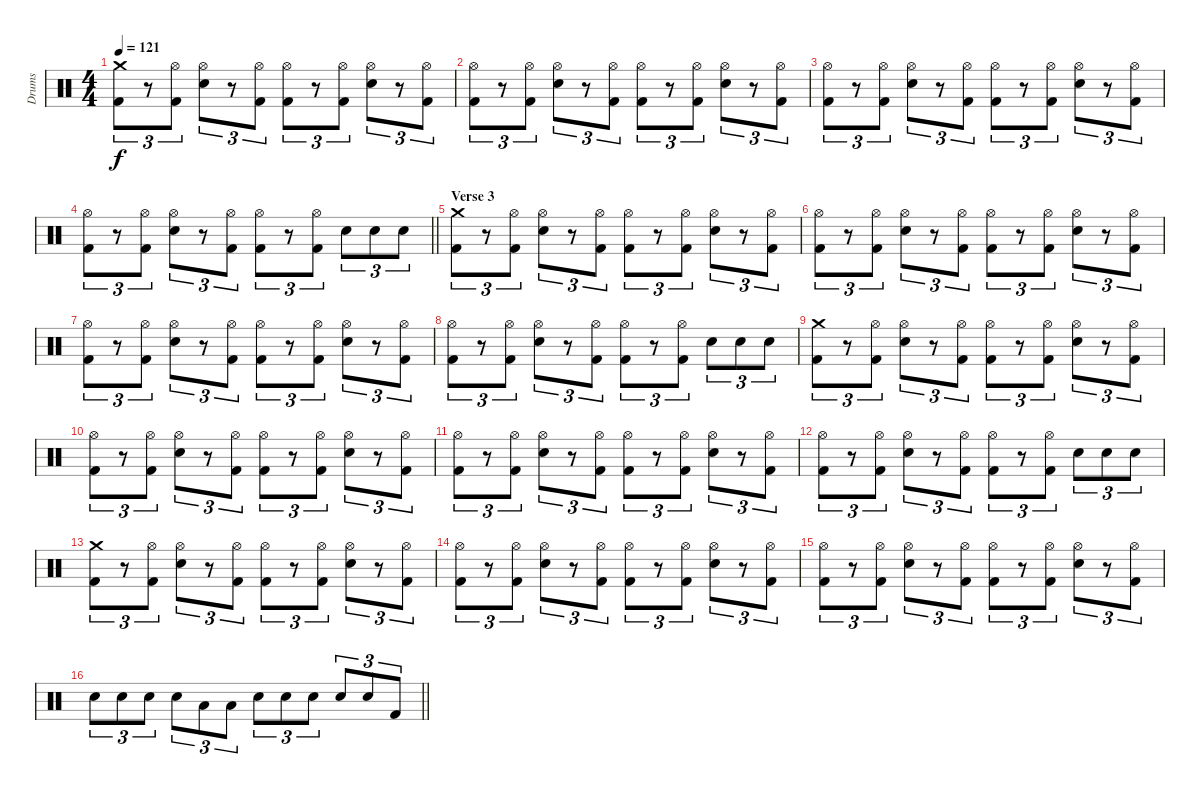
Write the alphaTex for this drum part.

\track ("Drums" "Drums") {instrument percussion}
\staff {score}
\articulation defaults
\ts (4 4)
\tempo 121
\clef neutral
\ks c
("Crash medium (hit)" "Kick (hit) 2").8{tu (3 2) dy f} r.8{tu (3 2)} ("Hi-Hat (open)" "Kick (hit) 2").8{tu (3 2)} ("Hi-Hat (open)" "Snare (hit) 2").8{tu (3 2)} r.8{tu (3 2)} ("Hi-Hat (open)" "Kick (hit) 2").8{tu (3 2)} ("Hi-Hat (open)" "Kick (hit) 2").8{tu (3 2)} r.8{tu (3 2)} ("Hi-Hat (open)" "Kick (hit) 2").8{tu (3 2)} ("Hi-Hat (open)" "Snare (hit) 2").8{tu (3 2)} r.8{tu (3 2)} ("Hi-Hat (open)" "Kick (hit) 2").8{tu (3 2)} |
("Hi-Hat (open)" "Kick (hit) 2").8{tu (3 2)} r.8{tu (3 2)} ("Hi-Hat (open)" "Kick (hit) 2").8{tu (3 2)} ("Hi-Hat (open)" "Snare (hit) 2").8{tu (3 2)} r.8{tu (3 2)} ("Hi-Hat (open)" "Kick (hit) 2").8{tu (3 2)} ("Hi-Hat (open)" "Kick (hit) 2").8{tu (3 2)} r.8{tu (3 2)} ("Hi-Hat (open)" "Kick (hit) 2").8{tu (3 2)} ("Hi-Hat (open)" "Snare (hit) 2").8{tu (3 2)} r.8{tu (3 2)} ("Hi-Hat (open)" "Kick (hit) 2").8{tu (3 2)} |
("Hi-Hat (open)" "Kick (hit) 2").8{tu (3 2)} r.8{tu (3 2)} ("Hi-Hat (open)" "Kick (hit) 2").8{tu (3 2)} ("Hi-Hat (open)" "Snare (hit) 2").8{tu (3 2)} r.8{tu (3 2)} ("Hi-Hat (open)" "Kick (hit) 2").8{tu (3 2)} ("Hi-Hat (open)" "Kick (hit) 2").8{tu (3 2)} r.8{tu (3 2)} ("Hi-Hat (open)" "Kick (hit) 2").8{tu (3 2)} ("Hi-Hat (open)" "Snare (hit) 2").8{tu (3 2)} r.8{tu (3 2)} ("Hi-Hat (open)" "Kick (hit) 2").8{tu (3 2)} |
\barLineRight lightlight
("Hi-Hat (open)" "Kick (hit) 2").8{tu (3 2)} r.8{tu (3 2)} ("Hi-Hat (open)" "Kick (hit) 2").8{tu (3 2)} ("Hi-Hat (open)" "Snare (hit) 2").8{tu (3 2)} r.8{tu (3 2)} ("Hi-Hat (open)" "Kick (hit) 2").8{tu (3 2)} ("Hi-Hat (open)" "Kick (hit) 2").8{tu (3 2)} r.8{tu (3 2)} ("Hi-Hat (open)" "Kick (hit) 2").8{tu (3 2)} "Snare (hit) 2".8{tu (3 2)} "Snare (hit) 2".8{tu (3 2)} "Snare (hit) 2".8{tu (3 2)} |
\section ("" "Verse 3")
("Crash medium (hit)" "Kick (hit) 2").8{tu (3 2)} r.8{tu (3 2)} ("Hi-Hat (open)" "Kick (hit) 2").8{tu (3 2)} ("Hi-Hat (open)" "Snare (hit) 2").8{tu (3 2)} r.8{tu (3 2)} ("Hi-Hat (open)" "Kick (hit) 2").8{tu (3 2)} ("Hi-Hat (open)" "Kick (hit) 2").8{tu (3 2)} r.8{tu (3 2)} ("Hi-Hat (open)" "Kick (hit) 2").8{tu (3 2)} ("Hi-Hat (open)" "Snare (hit) 2").8{tu (3 2)} r.8{tu (3 2)} ("Hi-Hat (open)" "Kick (hit) 2").8{tu (3 2)} |
("Hi-Hat (open)" "Kick (hit) 2").8{tu (3 2)} r.8{tu (3 2)} ("Hi-Hat (open)" "Kick (hit) 2").8{tu (3 2)} ("Hi-Hat (open)" "Snare (hit) 2").8{tu (3 2)} r.8{tu (3 2)} ("Hi-Hat (open)" "Kick (hit) 2").8{tu (3 2)} ("Hi-Hat (open)" "Kick (hit) 2").8{tu (3 2)} r.8{tu (3 2)} ("Hi-Hat (open)" "Kick (hit) 2").8{tu (3 2)} ("Hi-Hat (open)" "Snare (hit) 2").8{tu (3 2)} r.8{tu (3 2)} ("Hi-Hat (open)" "Kick (hit) 2").8{tu (3 2)} |
("Hi-Hat (open)" "Kick (hit) 2").8{tu (3 2)} r.8{tu (3 2)} ("Hi-Hat (open)" "Kick (hit) 2").8{tu (3 2)} ("Hi-Hat (open)" "Snare (hit) 2").8{tu (3 2)} r.8{tu (3 2)} ("Hi-Hat (open)" "Kick (hit) 2").8{tu (3 2)} ("Hi-Hat (open)" "Kick (hit) 2").8{tu (3 2)} r.8{tu (3 2)} ("Hi-Hat (open)" "Kick (hit) 2").8{tu (3 2)} ("Hi-Hat (open)" "Snare (hit) 2").8{tu (3 2)} r.8{tu (3 2)} ("Hi-Hat (open)" "Kick (hit) 2").8{tu (3 2)} |
("Hi-Hat (open)" "Kick (hit) 2").8{tu (3 2)} r.8{tu (3 2)} ("Hi-Hat (open)" "Kick (hit) 2").8{tu (3 2)} ("Hi-Hat (open)" "Snare (hit) 2").8{tu (3 2)} r.8{tu (3 2)} ("Hi-Hat (open)" "Kick (hit) 2").8{tu (3 2)} ("Hi-Hat (open)" "Kick (hit) 2").8{tu (3 2)} r.8{tu (3 2)} ("Hi-Hat (open)" "Kick (hit) 2").8{tu (3 2)} "Snare (hit) 2".8{tu (3 2)} "Snare (hit) 2".8{tu (3 2)} "Snare (hit) 2".8{tu (3 2)} |
("Crash medium (hit)" "Kick (hit) 2").8{tu (3 2)} r.8{tu (3 2)} ("Hi-Hat (open)" "Kick (hit) 2").8{tu (3 2)} ("Hi-Hat (open)" "Snare (hit) 2").8{tu (3 2)} r.8{tu (3 2)} ("Hi-Hat (open)" "Kick (hit) 2").8{tu (3 2)} ("Hi-Hat (open)" "Kick (hit) 2").8{tu (3 2)} r.8{tu (3 2)} ("Hi-Hat (open)" "Kick (hit) 2").8{tu (3 2)} ("Hi-Hat (open)" "Snare (hit) 2").8{tu (3 2)} r.8{tu (3 2)} ("Hi-Hat (open)" "Kick (hit) 2").8{tu (3 2)} |
("Hi-Hat (open)" "Kick (hit) 2").8{tu (3 2)} r.8{tu (3 2)} ("Hi-Hat (open)" "Kick (hit) 2").8{tu (3 2)} ("Hi-Hat (open)" "Snare (hit) 2").8{tu (3 2)} r.8{tu (3 2)} ("Hi-Hat (open)" "Kick (hit) 2").8{tu (3 2)} ("Hi-Hat (open)" "Kick (hit) 2").8{tu (3 2)} r.8{tu (3 2)} ("Hi-Hat (open)" "Kick (hit) 2").8{tu (3 2)} ("Hi-Hat (open)" "Snare (hit) 2").8{tu (3 2)} r.8{tu (3 2)} ("Hi-Hat (open)" "Kick (hit) 2").8{tu (3 2)} |
("Hi-Hat (open)" "Kick (hit) 2").8{tu (3 2)} r.8{tu (3 2)} ("Hi-Hat (open)" "Kick (hit) 2").8{tu (3 2)} ("Hi-Hat (open)" "Snare (hit) 2").8{tu (3 2)} r.8{tu (3 2)} ("Hi-Hat (open)" "Kick (hit) 2").8{tu (3 2)} ("Hi-Hat (open)" "Kick (hit) 2").8{tu (3 2)} r.8{tu (3 2)} ("Hi-Hat (open)" "Kick (hit) 2").8{tu (3 2)} ("Hi-Hat (open)" "Snare (hit) 2").8{tu (3 2)} r.8{tu (3 2)} ("Hi-Hat (open)" "Kick (hit) 2").8{tu (3 2)} |
("Hi-Hat (open)" "Kick (hit) 2").8{tu (3 2)} r.8{tu (3 2)} ("Hi-Hat (open)" "Kick (hit) 2").8{tu (3 2)} ("Hi-Hat (open)" "Snare (hit) 2").8{tu (3 2)} r.8{tu (3 2)} ("Hi-Hat (open)" "Kick (hit) 2").8{tu (3 2)} ("Hi-Hat (open)" "Kick (hit) 2").8{tu (3 2)} r.8{tu (3 2)} ("Hi-Hat (open)" "Kick (hit) 2").8{tu (3 2)} "Snare (hit) 2".8{tu (3 2)} "Snare (hit) 2".8{tu (3 2)} "Snare (hit) 2".8{tu (3 2)} |
("Crash medium (hit)" "Kick (hit) 2").8{tu (3 2)} r.8{tu (3 2)} ("Hi-Hat (open)" "Kick (hit) 2").8{tu (3 2)} ("Hi-Hat (open)" "Snare (hit) 2").8{tu (3 2)} r.8{tu (3 2)} ("Hi-Hat (open)" "Kick (hit) 2").8{tu (3 2)} ("Hi-Hat (open)" "Kick (hit) 2").8{tu (3 2)} r.8{tu (3 2)} ("Hi-Hat (open)" "Kick (hit) 2").8{tu (3 2)} ("Hi-Hat (open)" "Snare (hit) 2").8{tu (3 2)} r.8{tu (3 2)} ("Hi-Hat (open)" "Kick (hit) 2").8{tu (3 2)} |
("Hi-Hat (open)" "Kick (hit) 2").8{tu (3 2)} r.8{tu (3 2)} ("Hi-Hat (open)" "Kick (hit) 2").8{tu (3 2)} ("Hi-Hat (open)" "Snare (hit) 2").8{tu (3 2)} r.8{tu (3 2)} ("Hi-Hat (open)" "Kick (hit) 2").8{tu (3 2)} ("Hi-Hat (open)" "Kick (hit) 2").8{tu (3 2)} r.8{tu (3 2)} ("Hi-Hat (open)" "Kick (hit) 2").8{tu (3 2)} ("Hi-Hat (open)" "Snare (hit) 2").8{tu (3 2)} r.8{tu (3 2)} ("Hi-Hat (open)" "Kick (hit) 2").8{tu (3 2)} |
("Hi-Hat (open)" "Kick (hit) 2").8{tu (3 2)} r.8{tu (3 2)} ("Hi-Hat (open)" "Kick (hit) 2").8{tu (3 2)} ("Hi-Hat (open)" "Snare (hit) 2").8{tu (3 2)} r.8{tu (3 2)} ("Hi-Hat (open)" "Kick (hit) 2").8{tu (3 2)} ("Hi-Hat (open)" "Kick (hit) 2").8{tu (3 2)} r.8{tu (3 2)} ("Hi-Hat (open)" "Kick (hit) 2").8{tu (3 2)} ("Hi-Hat (open)" "Snare (hit) 2").8{tu (3 2)} r.8{tu (3 2)} ("Hi-Hat (open)" "Kick (hit) 2").8{tu (3 2)} |
\barLineRight lightlight "Snare (hit) 2".8{tu (3 2)} "Snare (hit) 2".8{tu (3 2)} "Snare (hit) 2".8{tu (3 2)} "Snare (hit) 2".8{tu (3 2)} "Low Tom (hit)".8{tu (3 2)} "Low Floor Tom (hit)".8{tu (3 2)} "Snare (hit) 2".8{tu (3 2)} "Snare (hit) 2".8{tu (3 2)} "Snare (hit) 2".8{tu (3 2)} "Snare (hit) 2".8{tu (3 2)} "Snare (hit) 2".8{tu (3 2)} "Kick (hit) 2".8{tu (3 2)}
